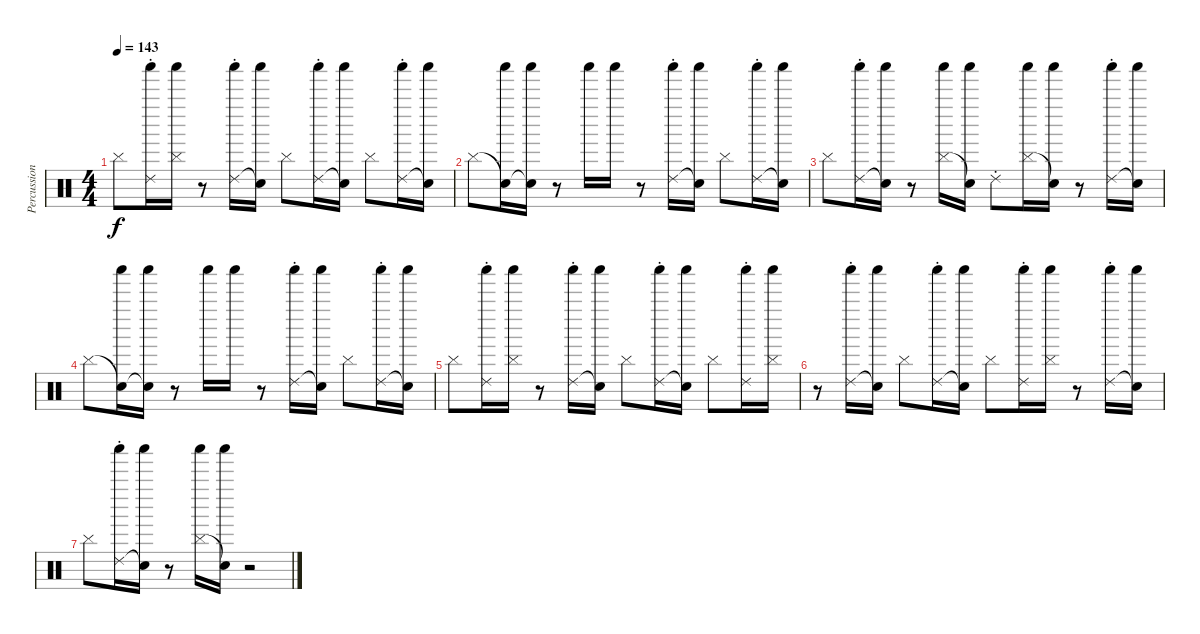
\track ("Percussion" "Percussion") {instrument percussion}
\staff {score}
\articulation defaults
\ts (4 4)
\tempo 143
\clef neutral
\ks aminor "Cymbal (hit)".8{dy f}
("Ride (choke) 2" "Shaker (hit)").16 ("Cymbal (hit)" "Shaker (hit)").16 r.8 ("Ride (choke) 2" "Shaker (hit)").16 ("Snare (hit)"{t} "Shaker (hit)").16 "Cymbal (hit)".8 ("Ride (choke) 2" "Shaker (hit)").16 ("Snare (hit)"{t} "Shaker (hit)").16 "Cymbal (hit)".8 ("Ride (choke) 2" "Shaker (hit)").16 ("Snare (hit)"{t} "Shaker (hit)").16 |
"Cymbal (hit)".8 ("Snare (hit)"{t} "Shaker (hit)").16 ("Snare (hit)"{t} "Shaker (hit)").16 r.8 "Shaker (hit)".16 "Shaker (hit)".16 r.8 ("Ride (choke) 2" "Shaker (hit)").16 ("Snare (hit)"{t} "Shaker (hit)").16 "Cymbal (hit)".8 ("Ride (choke) 2" "Shaker (hit)").16 ("Snare (hit)"{t} "Shaker (hit)").16 |
"Cymbal (hit)".8 ("Ride (choke) 2" "Shaker (hit)").16 ("Snare (hit)"{t} "Shaker (hit)").16 r.8 ("Cymbal (hit)" "Shaker (hit)").16 ("Snare (hit)"{t} "Shaker (hit)").16 "Ride (choke) 2".8 ("Cymbal (hit)" "Shaker (hit)").16 ("Snare (hit)"{t} "Shaker (hit)").16 r.8 ("Ride (choke) 2" "Shaker (hit)").16 ("Snare (hit)"{t} "Shaker (hit)").16 |
"Cymbal (hit)".8 ("Snare (hit)"{t} "Shaker (hit)").16 ("Snare (hit)"{t} "Shaker (hit)").16 r.8 "Shaker (hit)".16 "Shaker (hit)".16 r.8 ("Ride (choke) 2" "Shaker (hit)").16 ("Snare (hit)"{t} "Shaker (hit)").16 "Cymbal (hit)".8 ("Ride (choke) 2" "Shaker (hit)").16 ("Snare (hit)"{t} "Shaker (hit)").16 |
"Cymbal (hit)".8 ("Ride (choke) 2" "Shaker (hit)").16 ("Cymbal (hit)" "Shaker (hit)").16 r.8 ("Ride (choke) 2" "Shaker (hit)").16 ("Snare (hit)"{t} "Shaker (hit)").16 "Cymbal (hit)".8 ("Ride (choke) 2" "Shaker (hit)").16 ("Snare (hit)"{t} "Shaker (hit)").16 "Cymbal (hit)".8 ("Ride (choke) 2" "Shaker (hit)").16 ("Cymbal (hit)" "Shaker (hit)").16 |
r.8 ("Ride (choke) 2" "Shaker (hit)").16 ("Snare (hit)"{t} "Shaker (hit)").16 "Cymbal (hit)".8 ("Ride (choke) 2" "Shaker (hit)").16 ("Snare (hit)"{t} "Shaker (hit)").16 "Cymbal (hit)".8 ("Ride (choke) 2" "Shaker (hit)").16 ("Cymbal (hit)" "Shaker (hit)").16 r.8 ("Ride (choke) 2" "Shaker (hit)").16 ("Snare (hit)"{t} "Shaker (hit)").16 |
"Cymbal (hit)".8 ("Ride (choke) 2" "Shaker (hit)").16 ("Snare (hit)"{t} "Shaker (hit)").16 r.8 ("Cymbal (hit)" "Shaker (hit)").16 ("Snare (hit)"{t} "Shaker (hit)").16 r.2
